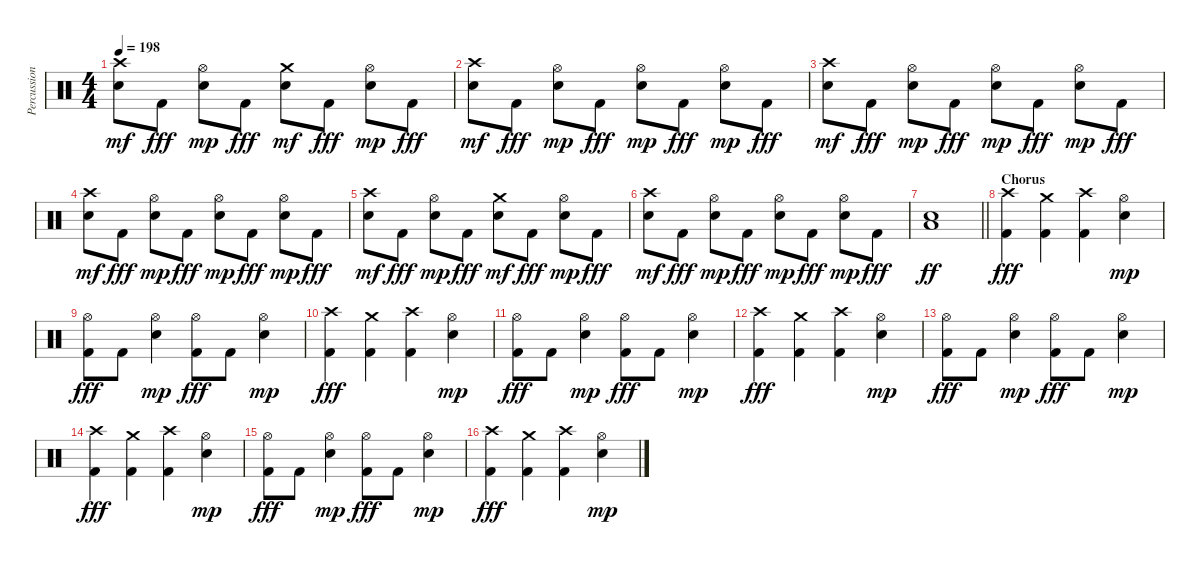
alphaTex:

\track ("Percussion" "Percussion") {instrument percussion}
\staff {score}
\articulation defaults
\ts (4 4)
\tempo 198
\clef neutral
\ks c
("Crash high (hit)" "Snare (hit) 2").8{dy mf} "Kick (hit) 2".8{dy fff} ("Hi-Hat (open)" "Snare (hit) 2").8{dy mp} "Kick (hit) 2".8{dy fff} ("Crash medium (hit)" "Snare (hit) 2").8{dy mf} "Kick (hit) 2".8{dy fff} ("Hi-Hat (open)" "Snare (hit) 2").8{dy mp} "Kick (hit) 2".8{dy fff} |
("Crash high (hit)" "Snare (hit) 2").8{dy mf} "Kick (hit) 2".8{dy fff} ("Hi-Hat (open)" "Snare (hit) 2").8{dy mp} "Kick (hit) 2".8{dy fff} ("Hi-Hat (open)" "Snare (hit) 2").8{dy mp} "Kick (hit) 2".8{dy fff} ("Hi-Hat (open)" "Snare (hit) 2").8{dy mp} "Kick (hit) 2".8{dy fff} |
("Crash high (hit)" "Snare (hit) 2").8{dy mf} "Kick (hit) 2".8{dy fff} ("Hi-Hat (open)" "Snare (hit) 2").8{dy mp} "Kick (hit) 2".8{dy fff} ("Hi-Hat (open)" "Snare (hit) 2").8{dy mp} "Kick (hit) 2".8{dy fff} ("Hi-Hat (open)" "Snare (hit) 2").8{dy mp} "Kick (hit) 2".8{dy fff} |
("Crash high (hit)" "Snare (hit) 2").8{dy mf} "Kick (hit) 2".8{dy fff} ("Hi-Hat (open)" "Snare (hit) 2").8{dy mp} "Kick (hit) 2".8{dy fff} ("Hi-Hat (open)" "Snare (hit) 2").8{dy mp} "Kick (hit) 2".8{dy fff} ("Hi-Hat (open)" "Snare (hit) 2").8{dy mp} "Kick (hit) 2".8{dy fff} |
("Crash high (hit)" "Snare (hit) 2").8{dy mf} "Kick (hit) 2".8{dy fff} ("Hi-Hat (open)" "Snare (hit) 2").8{dy mp} "Kick (hit) 2".8{dy fff} ("Crash medium (hit)" "Snare (hit) 2").8{dy mf} "Kick (hit) 2".8{dy fff} ("Hi-Hat (open)" "Snare (hit) 2").8{dy mp} "Kick (hit) 2".8{dy fff} |
("Crash high (hit)" "Snare (hit) 2").8{dy mf} "Kick (hit) 2".8{dy fff} ("Hi-Hat (open)" "Snare (hit) 2").8{dy mp} "Kick (hit) 2".8{dy fff} ("Hi-Hat (open)" "Snare (hit) 2").8{dy mp} "Kick (hit) 2".8{dy fff} ("Hi-Hat (open)" "Snare (hit) 2").8{dy mp} "Kick (hit) 2".8{dy fff} |
\barLineRight lightlight
("Low Floor Tom (hit)" "Snare (hit) 2").1{dy ff} |
\section ("" "Chorus")
("Crash high (hit)" "Kick (hit) 2").4{dy fff} ("Crash medium (hit)" "Kick (hit) 2").4 ("Crash high (hit)" "Kick (hit) 2").4 ("Hi-Hat (open)" "Snare (hit) 2").4{dy mp} |
("Hi-Hat (open)" "Kick (hit) 2").8{dy fff} "Kick (hit) 2".8 ("Hi-Hat (open)" "Snare (hit) 2").4{dy mp} ("Hi-Hat (open)" "Kick (hit) 2").8{dy fff} "Kick (hit) 2".8 ("Hi-Hat (open)" "Snare (hit) 2").4{dy mp} |
("Crash high (hit)" "Kick (hit) 2").4{dy fff} ("Crash medium (hit)" "Kick (hit) 2").4 ("Crash high (hit)" "Kick (hit) 2").4 ("Hi-Hat (open)" "Snare (hit) 2").4{dy mp} |
("Hi-Hat (open)" "Kick (hit) 2").8{dy fff} "Kick (hit) 2".8 ("Hi-Hat (open)" "Snare (hit) 2").4{dy mp} ("Hi-Hat (open)" "Kick (hit) 2").8{dy fff} "Kick (hit) 2".8 ("Hi-Hat (open)" "Snare (hit) 2").4{dy mp} |
("Crash high (hit)" "Kick (hit) 2").4{dy fff} ("Crash medium (hit)" "Kick (hit) 2").4 ("Crash high (hit)" "Kick (hit) 2").4 ("Hi-Hat (open)" "Snare (hit) 2").4{dy mp} |
("Hi-Hat (open)" "Kick (hit) 2").8{dy fff} "Kick (hit) 2".8 ("Hi-Hat (open)" "Snare (hit) 2").4{dy mp} ("Hi-Hat (open)" "Kick (hit) 2").8{dy fff} "Kick (hit) 2".8 ("Hi-Hat (open)" "Snare (hit) 2").4{dy mp} |
("Crash high (hit)" "Kick (hit) 2").4{dy fff} ("Crash medium (hit)" "Kick (hit) 2").4 ("Crash high (hit)" "Kick (hit) 2").4 ("Hi-Hat (open)" "Snare (hit) 2").4{dy mp} |
("Hi-Hat (open)" "Kick (hit) 2").8{dy fff} "Kick (hit) 2".8 ("Hi-Hat (open)" "Snare (hit) 2").4{dy mp} ("Hi-Hat (open)" "Kick (hit) 2").8{dy fff} "Kick (hit) 2".8 ("Hi-Hat (open)" "Snare (hit) 2").4{dy mp} |
("Crash high (hit)" "Kick (hit) 2").4{dy fff} ("Crash medium (hit)" "Kick (hit) 2").4 ("Crash high (hit)" "Kick (hit) 2").4 ("Hi-Hat (open)" "Snare (hit) 2").4{dy mp}
